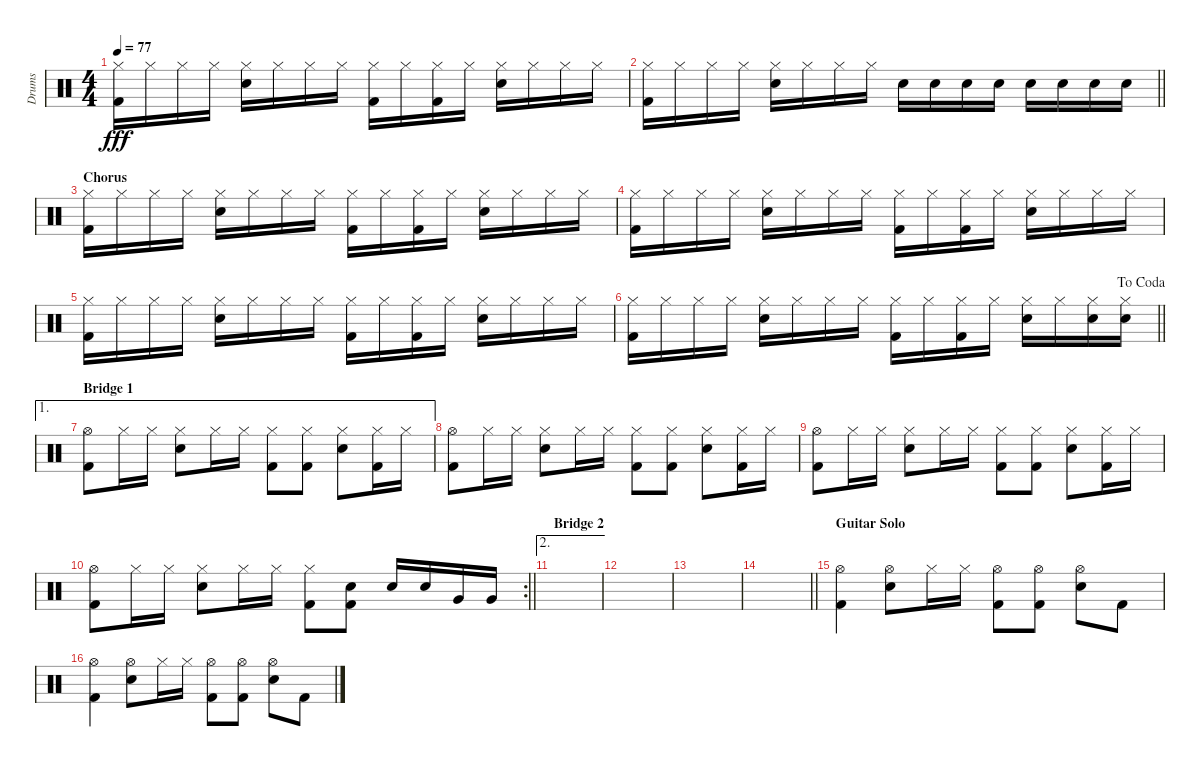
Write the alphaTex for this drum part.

\track ("Drums" "Drums") {instrument percussion}
\staff {score}
\articulation defaults
\ts (4 4)
\tempo 77
\clef neutral
\ks c
("Hi-Hat (closed)" "Kick (hit) 2").16{dy fff} "Hi-Hat (closed)".16 "Hi-Hat (closed)".16 "Hi-Hat (closed)".16 ("Hi-Hat (closed)" "Electric Snare (hit)").16 "Hi-Hat (closed)".16 "Hi-Hat (closed)".16 "Hi-Hat (closed)".16 ("Hi-Hat (closed)" "Kick (hit) 2").16 "Hi-Hat (closed)".16 ("Hi-Hat (closed)" "Kick (hit) 2").16 "Hi-Hat (closed)".16 ("Hi-Hat (closed)" "Electric Snare (hit)").16 "Hi-Hat (closed)".16 "Hi-Hat (closed)".16 "Hi-Hat (closed)".16 |
\barLineRight lightlight
("Hi-Hat (closed)" "Kick (hit) 2").16 "Hi-Hat (closed)".16 "Hi-Hat (closed)".16 "Hi-Hat (closed)".16 ("Hi-Hat (closed)" "Electric Snare (hit)").16 "Hi-Hat (closed)".16 "Hi-Hat (closed)".16 "Hi-Hat (closed)".16 "Electric Snare (hit)".16 "Electric Snare (hit)".16 "Electric Snare (hit)".16 "Electric Snare (hit)".16 "Electric Snare (hit)".16 "Electric Snare (hit)".16 "Electric Snare (hit)".16 "Electric Snare (hit)".16 |
\section ("" "Chorus")
("Hi-Hat (closed)" "Kick (hit) 2").16 "Hi-Hat (closed)".16 "Hi-Hat (closed)".16 "Hi-Hat (closed)".16 ("Hi-Hat (closed)" "Electric Snare (hit)").16 "Hi-Hat (closed)".16 "Hi-Hat (closed)".16 "Hi-Hat (closed)".16 ("Hi-Hat (closed)" "Kick (hit) 2").16 "Hi-Hat (closed)".16 ("Hi-Hat (closed)" "Kick (hit) 2").16 "Hi-Hat (closed)".16 ("Hi-Hat (closed)" "Electric Snare (hit)").16 "Hi-Hat (closed)".16 "Hi-Hat (closed)".16 "Hi-Hat (closed)".16 |
("Hi-Hat (closed)" "Kick (hit) 2").16 "Hi-Hat (closed)".16 "Hi-Hat (closed)".16 "Hi-Hat (closed)".16 ("Hi-Hat (closed)" "Electric Snare (hit)").16 "Hi-Hat (closed)".16 "Hi-Hat (closed)".16 "Hi-Hat (closed)".16 ("Hi-Hat (closed)" "Kick (hit) 2").16 "Hi-Hat (closed)".16 ("Hi-Hat (closed)" "Kick (hit) 2").16 "Hi-Hat (closed)".16 ("Hi-Hat (closed)" "Electric Snare (hit)").16 "Hi-Hat (closed)".16 "Hi-Hat (closed)".16 "Hi-Hat (closed)".16 |
("Hi-Hat (closed)" "Kick (hit) 2").16 "Hi-Hat (closed)".16 "Hi-Hat (closed)".16 "Hi-Hat (closed)".16 ("Hi-Hat (closed)" "Electric Snare (hit)").16 "Hi-Hat (closed)".16 "Hi-Hat (closed)".16 "Hi-Hat (closed)".16 ("Hi-Hat (closed)" "Kick (hit) 2").16 "Hi-Hat (closed)".16 ("Hi-Hat (closed)" "Kick (hit) 2").16 "Hi-Hat (closed)".16 ("Hi-Hat (closed)" "Electric Snare (hit)").16 "Hi-Hat (closed)".16 "Hi-Hat (closed)".16 "Hi-Hat (closed)".16 |
\jump dacoda
\barLineRight lightlight
("Hi-Hat (closed)" "Kick (hit) 2").16 "Hi-Hat (closed)".16 "Hi-Hat (closed)".16 "Hi-Hat (closed)".16 ("Hi-Hat (closed)" "Electric Snare (hit)").16 "Hi-Hat (closed)".16 "Hi-Hat (closed)".16 "Hi-Hat (closed)".16 ("Hi-Hat (closed)" "Kick (hit) 2").16 "Hi-Hat (closed)".16 ("Hi-Hat (closed)" "Kick (hit) 2").16 "Hi-Hat (closed)".16 ("Hi-Hat (closed)" "Electric Snare (hit)").16 "Hi-Hat (closed)".16 ("Hi-Hat (closed)" "Electric Snare (hit)").16 ("Hi-Hat (closed)" "Electric Snare (hit)").16 |
\ae 1
\section ("" "Bridge 1")
("Hi-Hat (open)" "Kick (hit) 2").8 "Hi-Hat (closed)".16 "Hi-Hat (closed)".16 ("Hi-Hat (closed)" "Electric Snare (hit)").8 "Hi-Hat (closed)".16 "Hi-Hat (closed)".16 ("Hi-Hat (closed)" "Kick (hit) 2").8 ("Hi-Hat (closed)" "Kick (hit) 2").8 ("Hi-Hat (closed)" "Electric Snare (hit)").8 ("Hi-Hat (closed)" "Kick (hit) 2").16 "Hi-Hat (closed)".16 |
("Hi-Hat (open)" "Kick (hit) 2").8 "Hi-Hat (closed)".16 "Hi-Hat (closed)".16 ("Hi-Hat (closed)" "Electric Snare (hit)").8 "Hi-Hat (closed)".16 "Hi-Hat (closed)".16 ("Hi-Hat (closed)" "Kick (hit) 2").8 ("Hi-Hat (closed)" "Kick (hit) 2").8 ("Hi-Hat (closed)" "Electric Snare (hit)").8 ("Hi-Hat (closed)" "Kick (hit) 2").16 "Hi-Hat (closed)".16 |
("Hi-Hat (open)" "Kick (hit) 2").8 "Hi-Hat (closed)".16 "Hi-Hat (closed)".16 ("Hi-Hat (closed)" "Electric Snare (hit)").8 "Hi-Hat (closed)".16 "Hi-Hat (closed)".16 ("Hi-Hat (closed)" "Kick (hit) 2").8 ("Hi-Hat (closed)" "Kick (hit) 2").8 ("Hi-Hat (closed)" "Electric Snare (hit)").8 ("Hi-Hat (closed)" "Kick (hit) 2").16 "Hi-Hat (closed)".16 |
\rc 2
\barLineRight lightlight
("Hi-Hat (open)" "Kick (hit) 2").8 "Hi-Hat (closed)".16 "Hi-Hat (closed)".16 ("Hi-Hat (closed)" "Electric Snare (hit)").8 "Hi-Hat (closed)".16 "Hi-Hat (closed)".16 ("Hi-Hat (closed)" "Kick (hit) 2").8 ("Electric Snare (hit)" "Kick (hit) 2").8 "Electric Snare (hit)".16 "Electric Snare (hit)".16 "Very Low Tom (hit)".16 "Very Low Tom (hit)".16 |
\ae 2
\section ("" "Bridge 2")
|
|
|
\barLineRight lightlight
|
\section ("" "Guitar Solo")
("Hi-Hat (open)" "Kick (hit) 2").4 ("Hi-Hat (open)" "Electric Snare (hit)").8 "Hi-Hat (closed)".16 "Hi-Hat (closed)".16 ("Hi-Hat (open)" "Kick (hit) 2").8 ("Hi-Hat (open)" "Kick (hit) 2").8 ("Hi-Hat (open)" "Electric Snare (hit)").8 "Kick (hit) 2".8 |
("Hi-Hat (open)" "Kick (hit) 2").4 ("Hi-Hat (open)" "Electric Snare (hit)").8 "Hi-Hat (closed)".16 "Hi-Hat (closed)".16 ("Hi-Hat (open)" "Kick (hit) 2").8 ("Hi-Hat (open)" "Kick (hit) 2").8 ("Hi-Hat (open)" "Electric Snare (hit)").8 "Kick (hit) 2".8
